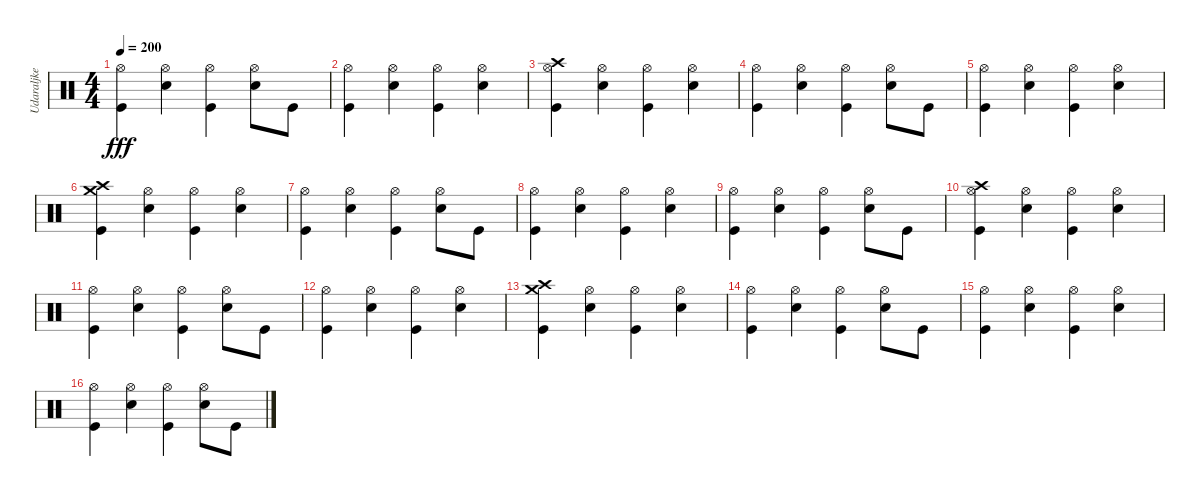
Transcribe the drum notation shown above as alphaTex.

\track ("Udaraljke" "Udaraljke") {instrument percussion}
\staff {score}
\articulation defaults
\ts (4 4)
\tempo 200
\clef neutral
\ks c
("Hi-Hat (open)" "Kick (hit)").4{dy fff} ("Hi-Hat (open)" "Electric Snare (hit)").4 ("Hi-Hat (open)" "Kick (hit)").4 ("Hi-Hat (open)" "Electric Snare (hit)").8 "Kick (hit)".8 |
("Hi-Hat (open)" "Kick (hit)").4 ("Hi-Hat (open)" "Electric Snare (hit)").4 ("Hi-Hat (open)" "Kick (hit)").4 ("Hi-Hat (open)" "Electric Snare (hit)").4 |
("Crash high (hit)" "Hi-Hat (open)" "Kick (hit)").4 ("Hi-Hat (open)" "Electric Snare (hit)").4 ("Hi-Hat (open)" "Kick (hit)").4 ("Hi-Hat (open)" "Electric Snare (hit)").4 |
("Hi-Hat (open)" "Kick (hit)").4 ("Hi-Hat (open)" "Electric Snare (hit)").4 ("Hi-Hat (open)" "Kick (hit)").4 ("Hi-Hat (open)" "Electric Snare (hit)").8 "Kick (hit)".8 |
("Hi-Hat (open)" "Kick (hit)").4 ("Hi-Hat (open)" "Electric Snare (hit)").4 ("Hi-Hat (open)" "Kick (hit)").4 ("Hi-Hat (open)" "Electric Snare (hit)").4 |
("Crash high (hit)" "Crash medium (hit)" "Kick (hit)").4 ("Hi-Hat (open)" "Electric Snare (hit)").4 ("Hi-Hat (open)" "Kick (hit)").4 ("Hi-Hat (open)" "Electric Snare (hit)").4 |
("Hi-Hat (open)" "Kick (hit)").4 ("Hi-Hat (open)" "Electric Snare (hit)").4 ("Hi-Hat (open)" "Kick (hit)").4 ("Hi-Hat (open)" "Electric Snare (hit)").8 "Kick (hit)".8 |
("Hi-Hat (open)" "Kick (hit)").4 ("Hi-Hat (open)" "Electric Snare (hit)").4 ("Hi-Hat (open)" "Kick (hit)").4 ("Hi-Hat (open)" "Electric Snare (hit)").4 |
("Hi-Hat (open)" "Kick (hit)").4 ("Hi-Hat (open)" "Electric Snare (hit)").4 ("Hi-Hat (open)" "Kick (hit)").4 ("Hi-Hat (open)" "Electric Snare (hit)").8 "Kick (hit)".8 |
("Crash high (hit)" "Hi-Hat (open)" "Kick (hit)").4 ("Hi-Hat (open)" "Electric Snare (hit)").4 ("Hi-Hat (open)" "Kick (hit)").4 ("Hi-Hat (open)" "Electric Snare (hit)").4 |
("Hi-Hat (open)" "Kick (hit)").4 ("Hi-Hat (open)" "Electric Snare (hit)").4 ("Hi-Hat (open)" "Kick (hit)").4 ("Hi-Hat (open)" "Electric Snare (hit)").8 "Kick (hit)".8 |
("Hi-Hat (open)" "Kick (hit)").4 ("Hi-Hat (open)" "Electric Snare (hit)").4 ("Hi-Hat (open)" "Kick (hit)").4 ("Hi-Hat (open)" "Electric Snare (hit)").4 |
("Crash high (hit)" "Crash medium (hit)" "Kick (hit)").4 ("Hi-Hat (open)" "Electric Snare (hit)").4 ("Hi-Hat (open)" "Kick (hit)").4 ("Hi-Hat (open)" "Electric Snare (hit)").4 |
("Hi-Hat (open)" "Kick (hit)").4 ("Hi-Hat (open)" "Electric Snare (hit)").4 ("Hi-Hat (open)" "Kick (hit)").4 ("Hi-Hat (open)" "Electric Snare (hit)").8 "Kick (hit)".8 |
("Hi-Hat (open)" "Kick (hit)").4 ("Hi-Hat (open)" "Electric Snare (hit)").4 ("Hi-Hat (open)" "Kick (hit)").4 ("Hi-Hat (open)" "Electric Snare (hit)").4 |
("Hi-Hat (open)" "Kick (hit)").4 ("Hi-Hat (open)" "Electric Snare (hit)").4 ("Hi-Hat (open)" "Kick (hit)").4 ("Hi-Hat (open)" "Electric Snare (hit)").8 "Kick (hit)".8
